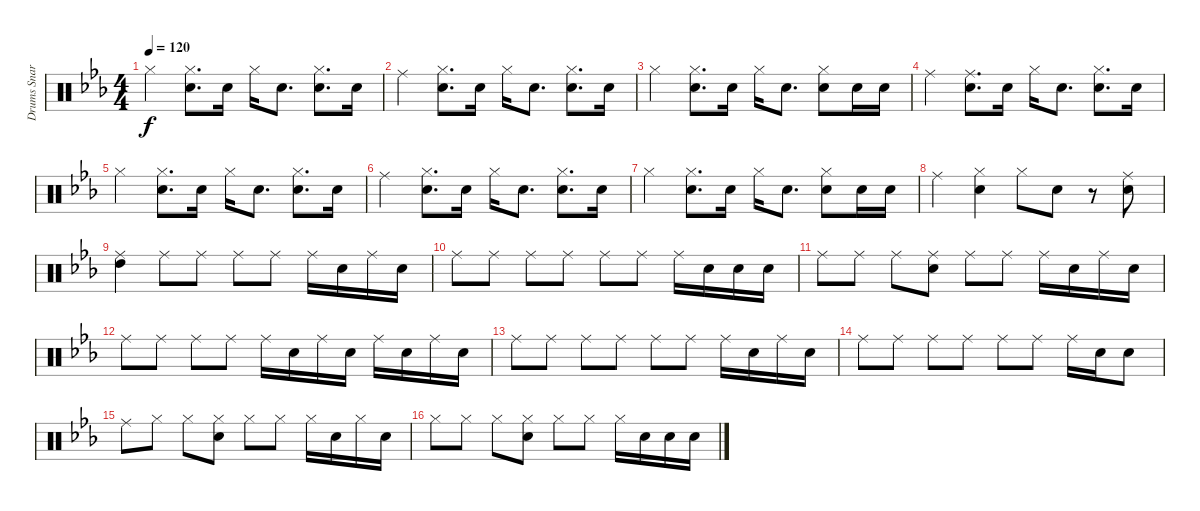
\track ("Drums Snare" "Drums Snar") {instrument percussion}
\staff {score}
\articulation defaults
\ts (4 4)
\tempo 120
\clef neutral
\ks eb "Hi-Hat (closed)".4{dy f}
("Hi-Hat (closed)" "Snare (hit) 2").8{d} "Snare (hit) 2".16 "Hi-Hat (closed)".16 "Snare (hit) 2".8{d} ("Hi-Hat (closed)" "Snare (hit) 2").8{d} "Snare (hit) 2".16 |
"Ride (middle)".4 ("Hi-Hat (closed)" "Snare (hit) 2").8{d} "Snare (hit) 2".16 "Hi-Hat (closed)".16 "Snare (hit) 2".8{d} ("Hi-Hat (closed)" "Snare (hit) 2").8{d} "Snare (hit) 2".16 |
"Hi-Hat (closed)".4 ("Hi-Hat (closed)" "Snare (hit) 2").8{d} "Snare (hit) 2".16 "Hi-Hat (closed)".16 "Snare (hit) 2".8{d} ("Hi-Hat (closed)" "Snare (hit) 2").8 "Snare (hit) 2".16 "Snare (hit) 2".16 |
"Ride (middle)".4 ("Ride (middle)" "Snare (hit) 2").8{d} "Snare (hit) 2".16 "Hi-Hat (closed)".16 "Snare (hit) 2".8{d} ("Hi-Hat (closed)" "Snare (hit) 2").8{d} "Snare (hit) 2".16 |
"Hi-Hat (closed)".4 ("Hi-Hat (closed)" "Snare (hit) 2").8{d} "Snare (hit) 2".16 "Hi-Hat (closed)".16 "Snare (hit) 2".8{d} ("Hi-Hat (closed)" "Snare (hit) 2").8{d} "Snare (hit) 2".16 |
"Ride (middle)".4 ("Hi-Hat (closed)" "Snare (hit) 2").8{d} "Snare (hit) 2".16 "Hi-Hat (closed)".16 "Snare (hit) 2".8{d} ("Hi-Hat (closed)" "Snare (hit) 2").8{d} "Snare (hit) 2".16 |
"Hi-Hat (closed)".4 ("Hi-Hat (closed)" "Snare (hit) 2").8{d} "Snare (hit) 2".16 "Hi-Hat (closed)".16 "Snare (hit) 2".8{d} ("Hi-Hat (closed)" "Snare (hit) 2").8 "Snare (hit) 2".16 "Snare (hit) 2".16 |
"Ride (middle)".4 ("Hi-Hat (closed)" "Snare (hit) 2").4 "Hi-Hat (closed)".8 "Snare (hit) 2".8 r.8 ("Ride (middle)" "Snare (hit) 2").8 |
("Ride (middle)" "High Tom (hit)").4 "Ride (middle)".8 "Ride (middle)".8 "Ride (middle)".8 "Ride (middle)".8 "Ride (middle)".16 "Snare (hit) 2".16 "Ride (middle)".16 "Snare (hit) 2".16 |
"Ride (middle)".8 "Ride (middle)".8 "Ride (middle)".8 "Ride (middle)".8 "Ride (middle)".8 "Ride (middle)".8 "Ride (middle)".16 "Snare (hit) 2".16 "Snare (hit) 2".16 "Snare (hit) 2".16 |
"Ride (middle)".8 "Ride (middle)".8 "Ride (middle)".8 ("Ride (middle)" "Snare (hit) 2").8 "Ride (middle)".8 "Ride (middle)".8 "Ride (middle)".16 "Snare (hit) 2".16 "Ride (middle)".16 "Snare (hit) 2".16 |
"Ride (middle)".8 "Ride (middle)".8 "Ride (middle)".8 "Ride (middle)".8 "Ride (middle)".16 "Snare (hit) 2".16 "Ride (middle)".16 "Snare (hit) 2".16 "Ride (middle)".16 "Snare (hit) 2".16 "Ride (middle)".16 "Snare (hit) 2".16 |
"Ride (middle)".8 "Ride (middle)".8 "Ride (middle)".8 "Ride (middle)".8 "Ride (middle)".8 "Ride (middle)".8 "Ride (middle)".16 "Snare (hit) 2".16 "Ride (middle)".16 "Snare (hit) 2".16 |
"Ride (middle)".8 "Ride (middle)".8 "Ride (middle)".8 "Ride (middle)".8 "Ride (middle)".8 "Ride (middle)".8 "Ride (middle)".16 "Snare (hit) 2".16 "Snare (hit) 2".8 |
"Ride (middle)".8 "Hi-Hat (closed)".8 "Hi-Hat (closed)".8 ("Hi-Hat (closed)" "Snare (hit) 2").8 "Hi-Hat (closed)".8 "Hi-Hat (closed)".8 "Hi-Hat (closed)".16 "Snare (hit) 2".16 "Hi-Hat (closed)".16 "Snare (hit) 2".16 |
"Hi-Hat (closed)".8 "Hi-Hat (closed)".8 "Hi-Hat (closed)".8 ("Hi-Hat (closed)" "Snare (hit) 2").8 "Hi-Hat (closed)".8 "Hi-Hat (closed)".8 "Hi-Hat (closed)".16 "Snare (hit) 2".16 "Snare (hit) 2".16 "Snare (hit) 2".16
